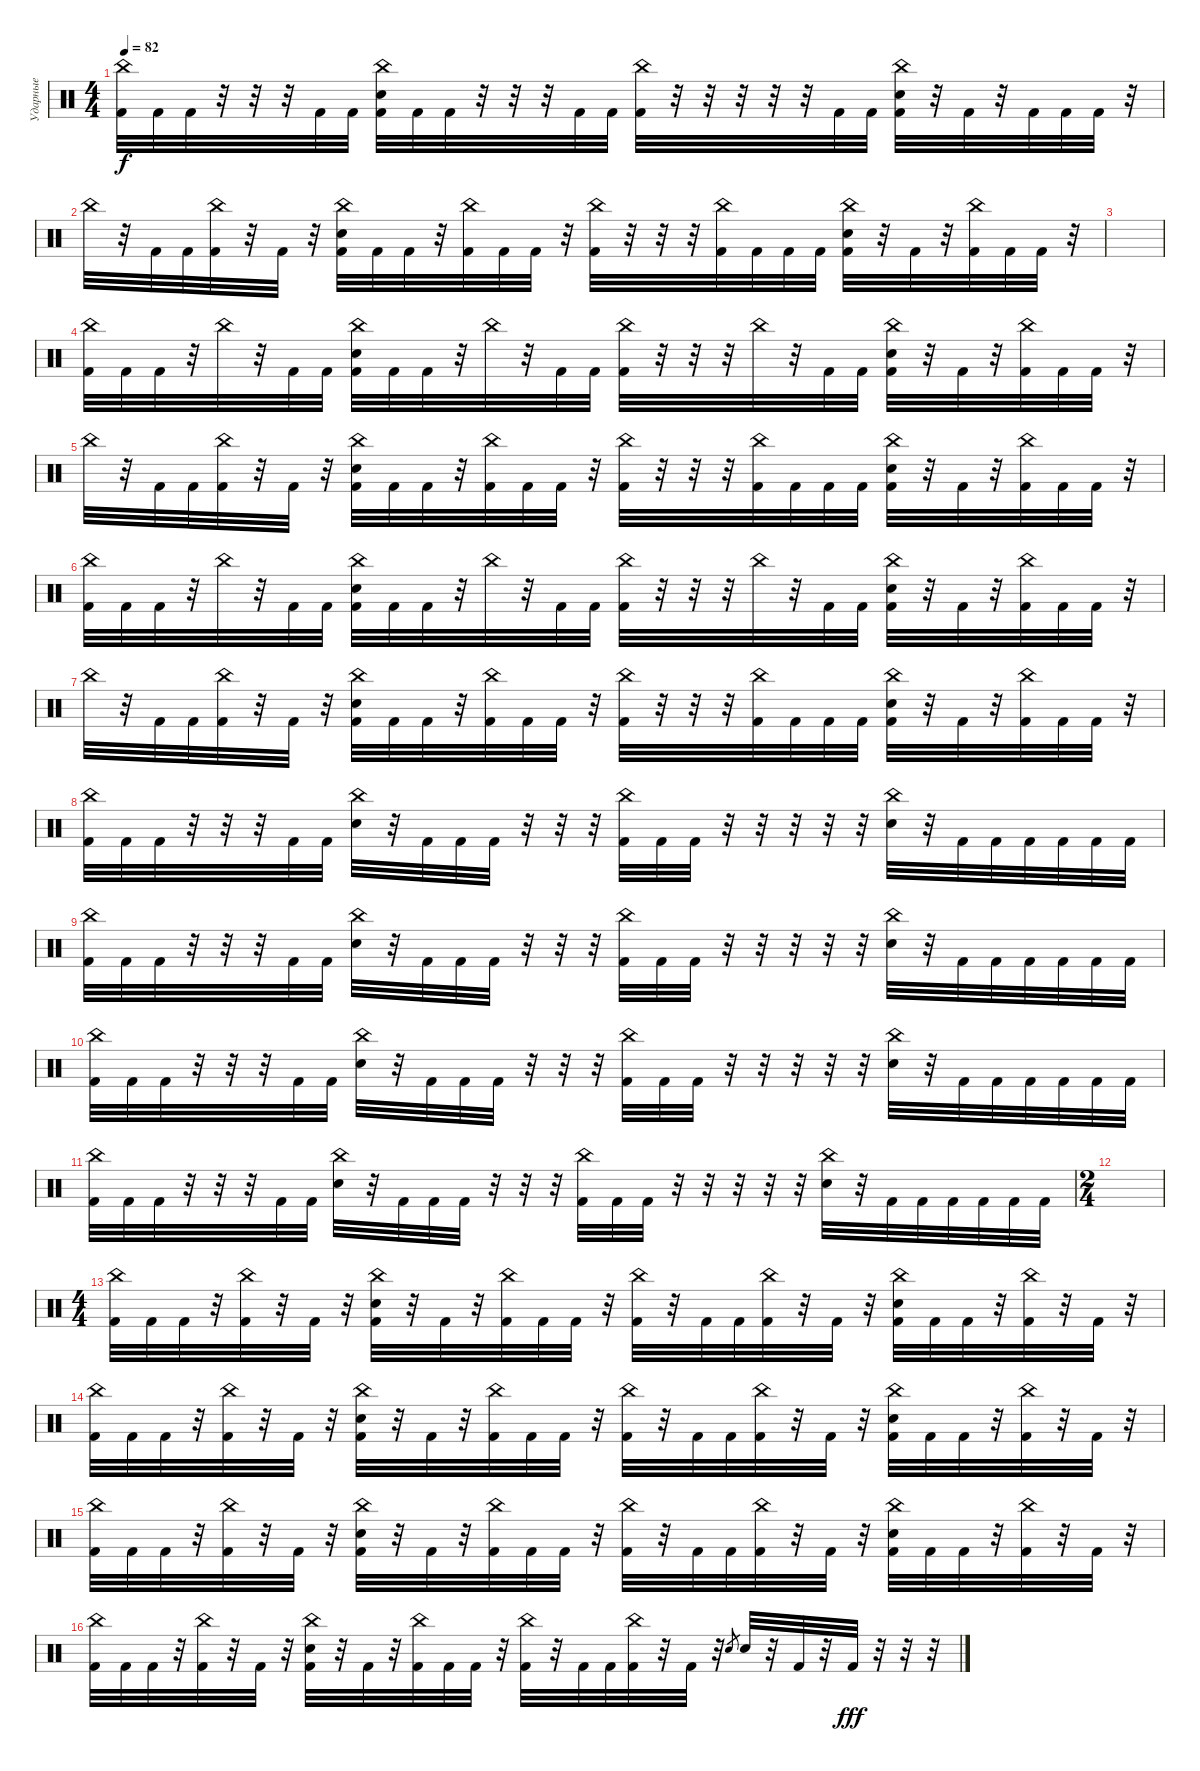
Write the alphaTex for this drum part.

\track ("Ударные" "Ударные") {instrument percussion}
\staff {score}
\articulation defaults
\ts (4 4)
\tempo 82
\clef neutral
\ks c
("China (hit)" "Kick (hit) 2").32{dy f} "Kick (hit) 2".32 "Kick (hit) 2".32 r.32 r.32 r.32 "Kick (hit) 2".32 "Kick (hit) 2".32 ("China (hit)" "Electric Snare (hit)" "Kick (hit) 2").32 "Kick (hit) 2".32 "Kick (hit) 2".32 r.32 r.32 r.32 "Kick (hit) 2".32 "Kick (hit) 2".32 ("China (hit)" "Kick (hit) 2").32 r.32 r.32 r.32 r.32 r.32 "Kick (hit) 2".32 "Kick (hit) 2".32 ("China (hit)" "Electric Snare (hit)" "Kick (hit) 2").32 r.32 "Kick (hit) 2".32 r.32 "Kick (hit) 2".32 "Kick (hit) 2".32 "Kick (hit) 2".32 r.32 |
"China (hit)".32 r.32 "Kick (hit) 2".32 "Kick (hit) 2".32 ("China (hit)" "Kick (hit) 2").32 r.32 "Kick (hit) 2".32 r.32 ("China (hit)" "Electric Snare (hit)" "Kick (hit) 2").32 "Kick (hit) 2".32 "Kick (hit) 2".32 r.32 ("China (hit)" "Kick (hit) 2").32 "Kick (hit) 2".32 "Kick (hit) 2".32 r.32 ("China (hit)" "Kick (hit) 2").32 r.32 r.32 r.32 ("China (hit)" "Kick (hit) 2").32 "Kick (hit) 2".32 "Kick (hit) 2".32 "Kick (hit) 2".32 ("China (hit)" "Electric Snare (hit)" "Kick (hit) 2").32 r.32 "Kick (hit) 2".32 r.32 ("China (hit)" "Kick (hit) 2").32 "Kick (hit) 2".32 "Kick (hit) 2".32 r.32 |
|
("China (hit)" "Kick (hit) 2").32 "Kick (hit) 2".32 "Kick (hit) 2".32 r.32 "China (hit)".32 r.32 "Kick (hit) 2".32 "Kick (hit) 2".32 ("China (hit)" "Electric Snare (hit)" "Kick (hit) 2").32 "Kick (hit) 2".32 "Kick (hit) 2".32 r.32 "China (hit)".32 r.32 "Kick (hit) 2".32 "Kick (hit) 2".32 ("China (hit)" "Kick (hit) 2").32 r.32 r.32 r.32 "China (hit)".32 r.32 "Kick (hit) 2".32 "Kick (hit) 2".32 ("China (hit)" "Electric Snare (hit)" "Kick (hit) 2").32 r.32 "Kick (hit) 2".32 r.32 ("China (hit)" "Kick (hit) 2").32 "Kick (hit) 2".32 "Kick (hit) 2".32 r.32 |
"China (hit)".32 r.32 "Kick (hit) 2".32 "Kick (hit) 2".32 ("China (hit)" "Kick (hit) 2").32 r.32 "Kick (hit) 2".32 r.32 ("China (hit)" "Electric Snare (hit)" "Kick (hit) 2").32 "Kick (hit) 2".32 "Kick (hit) 2".32 r.32 ("China (hit)" "Kick (hit) 2").32 "Kick (hit) 2".32 "Kick (hit) 2".32 r.32 ("China (hit)" "Kick (hit) 2").32 r.32 r.32 r.32 ("China (hit)" "Kick (hit) 2").32 "Kick (hit) 2".32 "Kick (hit) 2".32 "Kick (hit) 2".32 ("China (hit)" "Electric Snare (hit)" "Kick (hit) 2").32 r.32 "Kick (hit) 2".32 r.32 ("China (hit)" "Kick (hit) 2").32 "Kick (hit) 2".32 "Kick (hit) 2".32 r.32 |
("China (hit)" "Kick (hit) 2").32 "Kick (hit) 2".32 "Kick (hit) 2".32 r.32 "China (hit)".32 r.32 "Kick (hit) 2".32 "Kick (hit) 2".32 ("China (hit)" "Electric Snare (hit)" "Kick (hit) 2").32 "Kick (hit) 2".32 "Kick (hit) 2".32 r.32 "China (hit)".32 r.32 "Kick (hit) 2".32 "Kick (hit) 2".32 ("China (hit)" "Kick (hit) 2").32 r.32 r.32 r.32 "China (hit)".32 r.32 "Kick (hit) 2".32 "Kick (hit) 2".32 ("China (hit)" "Electric Snare (hit)" "Kick (hit) 2").32 r.32 "Kick (hit) 2".32 r.32 ("China (hit)" "Kick (hit) 2").32 "Kick (hit) 2".32 "Kick (hit) 2".32 r.32 |
"China (hit)".32 r.32 "Kick (hit) 2".32 "Kick (hit) 2".32 ("China (hit)" "Kick (hit) 2").32 r.32 "Kick (hit) 2".32 r.32 ("China (hit)" "Electric Snare (hit)" "Kick (hit) 2").32 "Kick (hit) 2".32 "Kick (hit) 2".32 r.32 ("China (hit)" "Kick (hit) 2").32 "Kick (hit) 2".32 "Kick (hit) 2".32 r.32 ("China (hit)" "Kick (hit) 2").32 r.32 r.32 r.32 ("China (hit)" "Kick (hit) 2").32 "Kick (hit) 2".32 "Kick (hit) 2".32 "Kick (hit) 2".32 ("China (hit)" "Electric Snare (hit)" "Kick (hit) 2").32 r.32 "Kick (hit) 2".32 r.32 ("China (hit)" "Kick (hit) 2").32 "Kick (hit) 2".32 "Kick (hit) 2".32 r.32 |
("China (hit)" "Kick (hit) 2").32 "Kick (hit) 2".32 "Kick (hit) 2".32 r.32 r.32 r.32 "Kick (hit) 2".32 "Kick (hit) 2".32 ("China (hit)" "Electric Snare (hit)").32 r.32 "Kick (hit) 2".32 "Kick (hit) 2".32 "Kick (hit) 2".32 r.32 r.32 r.32 ("China (hit)" "Kick (hit) 2").32 "Kick (hit) 2".32 "Kick (hit) 2".32 r.32 r.32 r.32 r.32 r.32 ("China (hit)" "Electric Snare (hit)").32 r.32 "Kick (hit) 2".32 "Kick (hit) 2".32 "Kick (hit) 2".32 "Kick (hit) 2".32 "Kick (hit) 2".32 "Kick (hit) 2".32 |
("China (hit)" "Kick (hit) 2").32 "Kick (hit) 2".32 "Kick (hit) 2".32 r.32 r.32 r.32 "Kick (hit) 2".32 "Kick (hit) 2".32 ("China (hit)" "Electric Snare (hit)").32 r.32 "Kick (hit) 2".32 "Kick (hit) 2".32 "Kick (hit) 2".32 r.32 r.32 r.32 ("China (hit)" "Kick (hit) 2").32 "Kick (hit) 2".32 "Kick (hit) 2".32 r.32 r.32 r.32 r.32 r.32 ("China (hit)" "Electric Snare (hit)").32 r.32 "Kick (hit) 2".32 "Kick (hit) 2".32 "Kick (hit) 2".32 "Kick (hit) 2".32 "Kick (hit) 2".32 "Kick (hit) 2".32 |
("China (hit)" "Kick (hit) 2").32 "Kick (hit) 2".32 "Kick (hit) 2".32 r.32 r.32 r.32 "Kick (hit) 2".32 "Kick (hit) 2".32 ("China (hit)" "Electric Snare (hit)").32 r.32 "Kick (hit) 2".32 "Kick (hit) 2".32 "Kick (hit) 2".32 r.32 r.32 r.32 ("China (hit)" "Kick (hit) 2").32 "Kick (hit) 2".32 "Kick (hit) 2".32 r.32 r.32 r.32 r.32 r.32 ("China (hit)" "Electric Snare (hit)").32 r.32 "Kick (hit) 2".32 "Kick (hit) 2".32 "Kick (hit) 2".32 "Kick (hit) 2".32 "Kick (hit) 2".32 "Kick (hit) 2".32 |
("China (hit)" "Kick (hit) 2").32 "Kick (hit) 2".32 "Kick (hit) 2".32 r.32 r.32 r.32 "Kick (hit) 2".32 "Kick (hit) 2".32 ("China (hit)" "Electric Snare (hit)").32 r.32 "Kick (hit) 2".32 "Kick (hit) 2".32 "Kick (hit) 2".32 r.32 r.32 r.32 ("China (hit)" "Kick (hit) 2").32 "Kick (hit) 2".32 "Kick (hit) 2".32 r.32 r.32 r.32 r.32 r.32 ("China (hit)" "Electric Snare (hit)").32 r.32 "Kick (hit) 2".32 "Kick (hit) 2".32 "Kick (hit) 2".32 "Kick (hit) 2".32 "Kick (hit) 2".32 "Kick (hit) 2".32 |
\ts (2 4)
|
\ts (4 4)
("China (hit)" "Kick (hit) 2").32 "Kick (hit) 2".32 "Kick (hit) 2".32 r.32 ("China (hit)" "Kick (hit) 2").32 r.32 "Kick (hit) 2".32 r.32 ("China (hit)" "Electric Snare (hit)" "Kick (hit) 2").32 r.32 "Kick (hit) 2".32 r.32 ("China (hit)" "Kick (hit) 2").32 "Kick (hit) 2".32 "Kick (hit) 2".32 r.32 ("China (hit)" "Kick (hit) 2").32 r.32 "Kick (hit) 2".32 "Kick (hit) 2".32 ("China (hit)" "Kick (hit) 2").32 r.32 "Kick (hit) 2".32 r.32 ("China (hit)" "Electric Snare (hit)" "Kick (hit) 2").32 "Kick (hit) 2".32 "Kick (hit) 2".32 r.32 ("China (hit)" "Kick (hit) 2").32 r.32 "Kick (hit) 2".32 r.32 |
("China (hit)" "Kick (hit) 2").32 "Kick (hit) 2".32 "Kick (hit) 2".32 r.32 ("China (hit)" "Kick (hit) 2").32 r.32 "Kick (hit) 2".32 r.32 ("China (hit)" "Electric Snare (hit)" "Kick (hit) 2").32 r.32 "Kick (hit) 2".32 r.32 ("China (hit)" "Kick (hit) 2").32 "Kick (hit) 2".32 "Kick (hit) 2".32 r.32 ("China (hit)" "Kick (hit) 2").32 r.32 "Kick (hit) 2".32 "Kick (hit) 2".32 ("China (hit)" "Kick (hit) 2").32 r.32 "Kick (hit) 2".32 r.32 ("China (hit)" "Electric Snare (hit)" "Kick (hit) 2").32 "Kick (hit) 2".32 "Kick (hit) 2".32 r.32 ("China (hit)" "Kick (hit) 2").32 r.32 "Kick (hit) 2".32 r.32 |
("China (hit)" "Kick (hit) 2").32 "Kick (hit) 2".32 "Kick (hit) 2".32 r.32 ("China (hit)" "Kick (hit) 2").32 r.32 "Kick (hit) 2".32 r.32 ("China (hit)" "Electric Snare (hit)" "Kick (hit) 2").32 r.32 "Kick (hit) 2".32 r.32 ("China (hit)" "Kick (hit) 2").32 "Kick (hit) 2".32 "Kick (hit) 2".32 r.32 ("China (hit)" "Kick (hit) 2").32 r.32 "Kick (hit) 2".32 "Kick (hit) 2".32 ("China (hit)" "Kick (hit) 2").32 r.32 "Kick (hit) 2".32 r.32 ("China (hit)" "Electric Snare (hit)" "Kick (hit) 2").32 "Kick (hit) 2".32 "Kick (hit) 2".32 r.32 ("China (hit)" "Kick (hit) 2").32 r.32 "Kick (hit) 2".32 r.32 |
("China (hit)" "Kick (hit) 2").32 "Kick (hit) 2".32 "Kick (hit) 2".32 r.32 ("China (hit)" "Kick (hit) 2").32 r.32 "Kick (hit) 2".32 r.32 ("China (hit)" "Electric Snare (hit)" "Kick (hit) 2").32 r.32 "Kick (hit) 2".32 r.32 ("China (hit)" "Kick (hit) 2").32 "Kick (hit) 2".32 "Kick (hit) 2".32 r.32 ("China (hit)" "Kick (hit) 2").32 r.32 "Kick (hit) 2".32 "Kick (hit) 2".32 ("China (hit)" "Kick (hit) 2").32 r.32 "Kick (hit) 2".32 r.32 "Electric Snare (hit)".8{gr} "Electric Snare (hit)".32 r.32 "Kick (hit) 2".32 r.32 "Kick (hit) 2".32{dy fff} r.32 r.32 r.32
